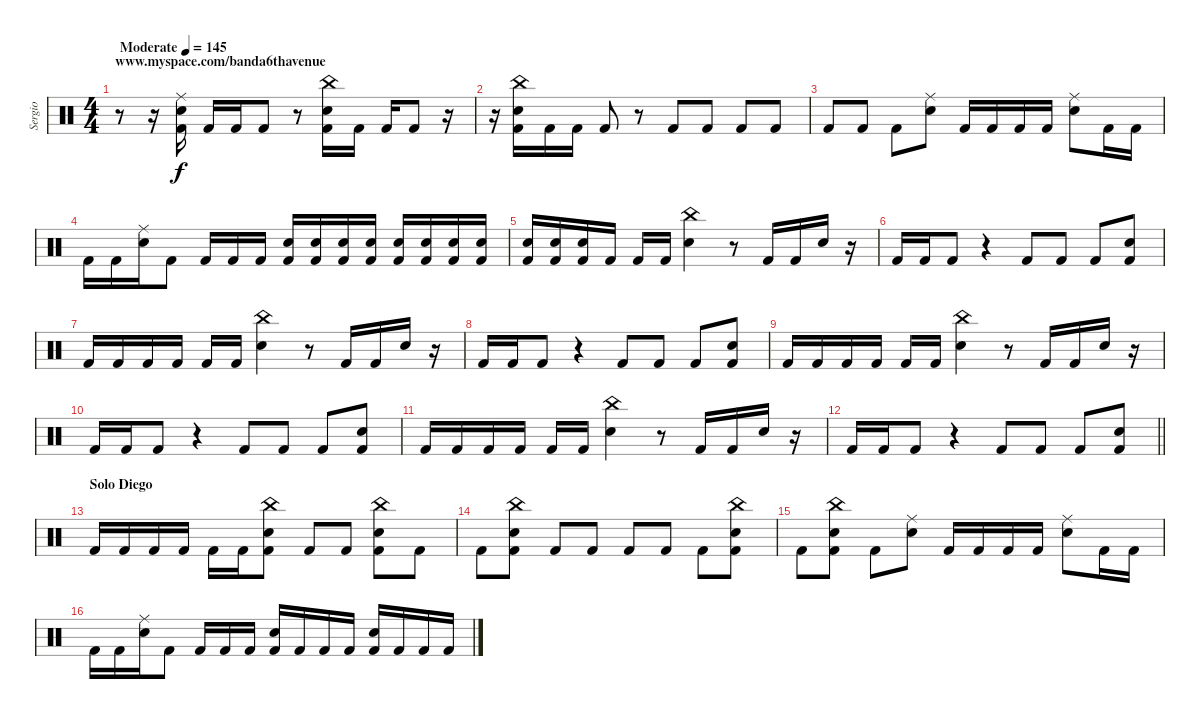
\track ("Sergio" "Sergio") {instrument percussion}
\staff {score}
\articulation defaults
\ts (4 4)
\section ("" "www.myspace.com/banda6thavenue")
\tempo (145 "Moderate")
\clef neutral
\ks c
r.8{dy f} r.16 ("Ride (middle)" "Electric Snare (hit)" "Kick (hit) 2").16 "Kick (hit) 2".16 "Kick (hit) 2".16 "Kick (hit) 2".8 r.8 ("China (hit)" "Electric Snare (hit)" "Kick (hit) 2").16 "Kick (hit) 2".16 "Kick (hit) 2".16 "Kick (hit) 2".8 r.16 |
r.16 ("China (hit)" "Electric Snare (hit)" "Kick (hit) 2").16 "Kick (hit) 2".16 "Kick (hit) 2".16 "Kick (hit) 2".8 r.8 "Kick (hit) 2".8 "Kick (hit) 2".8 "Kick (hit) 2".8 "Kick (hit) 2".8 |
"Kick (hit) 2".8 "Kick (hit) 2".8 "Kick (hit) 2".8 ("Ride (middle)" "Electric Snare (hit)").8 "Kick (hit) 2".16 "Kick (hit) 2".16 "Kick (hit) 2".16 "Kick (hit) 2".16 ("Ride (middle)" "Electric Snare (hit)").8 "Kick (hit) 2".16 "Kick (hit) 2".16 |
"Kick (hit) 2".16 "Kick (hit) 2".16 ("Ride (middle)" "Electric Snare (hit)").16 "Kick (hit) 2".8 "Kick (hit) 2".16 "Kick (hit) 2".16 "Kick (hit) 2".16 ("Electric Snare (hit)" "Kick (hit) 2").16 ("Electric Snare (hit)" "Kick (hit) 2").16 ("Electric Snare (hit)" "Kick (hit) 2").16 ("Electric Snare (hit)" "Kick (hit) 2").16 ("Electric Snare (hit)" "Kick (hit) 2").16 ("Electric Snare (hit)" "Kick (hit) 2").16 ("Electric Snare (hit)" "Kick (hit) 2").16 ("Electric Snare (hit)" "Kick (hit) 2").16 |
("Electric Snare (hit)" "Kick (hit) 2").16 ("Electric Snare (hit)" "Kick (hit) 2").16 ("Electric Snare (hit)" "Kick (hit) 2").16 "Kick (hit) 2".16 "Kick (hit) 2".16 "Kick (hit) 2".16 ("China (hit)" "Electric Snare (hit)").4 r.8 "Kick (hit) 2".16 "Kick (hit) 2".16 "Electric Snare (hit)".16 r.16 |
"Kick (hit) 2".16 "Kick (hit) 2".16 "Kick (hit) 2".8 r.4 "Kick (hit) 2".8 "Kick (hit) 2".8 "Kick (hit) 2".8 ("Electric Snare (hit)" "Kick (hit) 2").8 |
"Kick (hit) 2".16 "Kick (hit) 2".16 "Kick (hit) 2".16 "Kick (hit) 2".16 "Kick (hit) 2".16 "Kick (hit) 2".16 ("China (hit)" "Electric Snare (hit)").4 r.8 "Kick (hit) 2".16 "Kick (hit) 2".16 "Electric Snare (hit)".16 r.16 |
"Kick (hit) 2".16 "Kick (hit) 2".16 "Kick (hit) 2".8 r.4 "Kick (hit) 2".8 "Kick (hit) 2".8 "Kick (hit) 2".8 ("Electric Snare (hit)" "Kick (hit) 2").8 |
"Kick (hit) 2".16 "Kick (hit) 2".16 "Kick (hit) 2".16 "Kick (hit) 2".16 "Kick (hit) 2".16 "Kick (hit) 2".16 ("China (hit)" "Electric Snare (hit)").4 r.8 "Kick (hit) 2".16 "Kick (hit) 2".16 "Electric Snare (hit)".16 r.16 |
"Kick (hit) 2".16 "Kick (hit) 2".16 "Kick (hit) 2".8 r.4 "Kick (hit) 2".8 "Kick (hit) 2".8 "Kick (hit) 2".8 ("Electric Snare (hit)" "Kick (hit) 2").8 |
"Kick (hit) 2".16 "Kick (hit) 2".16 "Kick (hit) 2".16 "Kick (hit) 2".16 "Kick (hit) 2".16 "Kick (hit) 2".16 ("China (hit)" "Electric Snare (hit)").4 r.8 "Kick (hit) 2".16 "Kick (hit) 2".16 "Electric Snare (hit)".16 r.16 |
\barLineRight lightlight "Kick (hit) 2".16 "Kick (hit) 2".16 "Kick (hit) 2".8
r.4 "Kick (hit) 2".8 "Kick (hit) 2".8 "Kick (hit) 2".8 ("Electric Snare (hit)" "Kick (hit) 2").8 |
\section ("" "Solo Diego")
"Kick (hit) 2".16 "Kick (hit) 2".16 "Kick (hit) 2".16 "Kick (hit) 2".16 "Kick (hit) 2".16 "Kick (hit) 2".16 ("China (hit)" "Electric Snare (hit)" "Kick (hit) 2").8 "Kick (hit) 2".8 "Kick (hit) 2".8 ("China (hit)" "Electric Snare (hit)" "Kick (hit) 2").8 "Kick (hit) 2".8 |
"Kick (hit) 2".8 ("China (hit)" "Electric Snare (hit)" "Kick (hit) 2").8 "Kick (hit) 2".8 "Kick (hit) 2".8 "Kick (hit) 2".8 "Kick (hit) 2".8 "Kick (hit) 2".8 ("China (hit)" "Electric Snare (hit)" "Kick (hit) 2").8 |
"Kick (hit) 2".8 ("China (hit)" "Electric Snare (hit)" "Kick (hit) 2").8 "Kick (hit) 2".8 ("Ride (middle)" "Electric Snare (hit)").8 "Kick (hit) 2".16 "Kick (hit) 2".16 "Kick (hit) 2".16 "Kick (hit) 2".16 ("Ride (middle)" "Electric Snare (hit)").8 "Kick (hit) 2".16 "Kick (hit) 2".16 |
"Kick (hit) 2".16 "Kick (hit) 2".16 ("Ride (middle)" "Electric Snare (hit)").16 "Kick (hit) 2".8 "Kick (hit) 2".16 "Kick (hit) 2".16 "Kick (hit) 2".16 ("Electric Snare (hit)" "Kick (hit) 2").16 "Kick (hit) 2".16 "Kick (hit) 2".16 "Kick (hit) 2".16 ("Electric Snare (hit)" "Kick (hit) 2").16 "Kick (hit) 2".16 "Kick (hit) 2".16 "Kick (hit) 2".16
